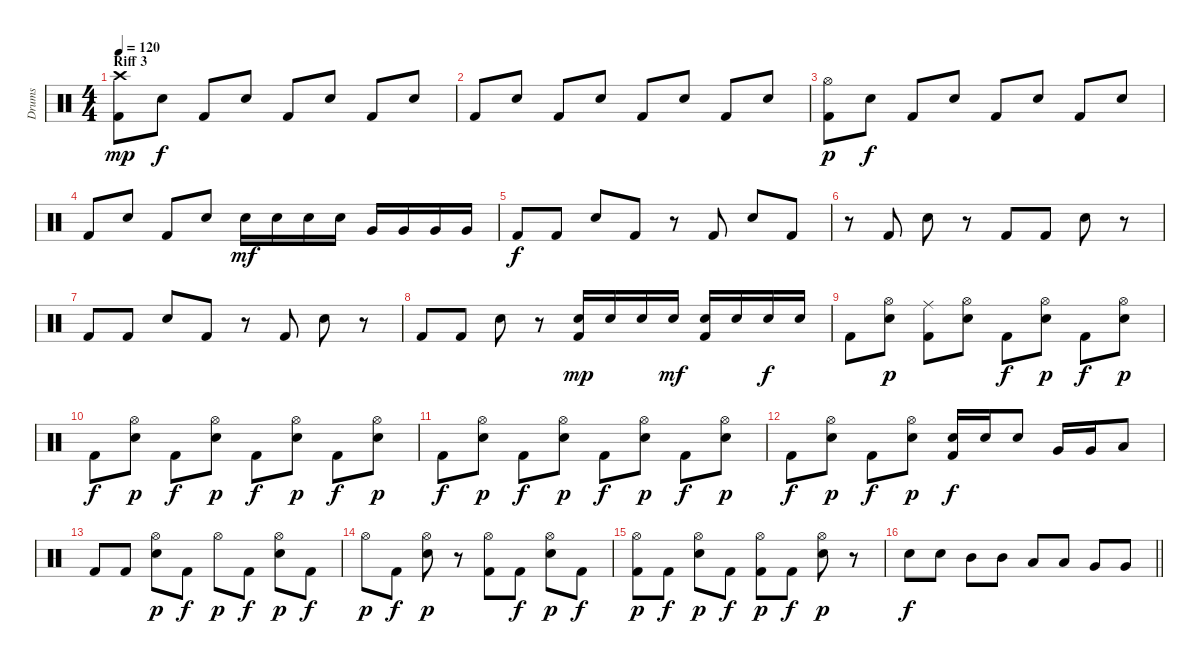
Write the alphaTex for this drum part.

\track ("Drums" "Drums") {instrument percussion}
\staff {score}
\articulation defaults
\ts (4 4)
\section ("" "Riff 3")
\tempo 120
\clef neutral
\ks c
("Kick (hit) 2" "Crash high (hit)").8{dy mp} "Snare (hit) 2".8{dy f} "Kick (hit) 2".8 "Snare (hit) 2".8 "Kick (hit) 2".8 "Snare (hit) 2".8 "Kick (hit) 2".8 "Snare (hit) 2".8 |
"Kick (hit) 2".8 "Snare (hit) 2".8 "Kick (hit) 2".8 "Snare (hit) 2".8 "Kick (hit) 2".8 "Snare (hit) 2".8 "Kick (hit) 2".8 "Snare (hit) 2".8 |
("Kick (hit) 2" "Hi-Hat (open)").8{dy p} "Snare (hit) 2".8{dy f} "Kick (hit) 2".8 "Snare (hit) 2".8 "Kick (hit) 2".8 "Snare (hit) 2".8 "Kick (hit) 2".8 "Snare (hit) 2".8 |
"Kick (hit) 2".8 "Snare (hit) 2".8 "Kick (hit) 2".8 "Snare (hit) 2".8 "Snare (hit) 2".16{dy mf} "Snare (hit) 2".16 "Snare (hit) 2".16 "Snare (hit) 2".16 "Very Low Tom (hit)".16 "Very Low Tom (hit)".16 "Very Low Tom (hit)".16 "Very Low Tom (hit)".16 |
"Kick (hit) 2".8{dy f} "Kick (hit) 2".8 "Snare (hit) 2".8 "Kick (hit) 2".8 r.8 "Kick (hit) 2".8 "Snare (hit) 2".8 "Kick (hit) 2".8 |
r.8 "Kick (hit) 2".8 "Snare (hit) 2".8 r.8 "Kick (hit) 2".8 "Kick (hit) 2".8 "Snare (hit) 2".8 r.8 |
"Kick (hit) 2".8 "Kick (hit) 2".8 "Snare (hit) 2".8 "Kick (hit) 2".8 r.8 "Kick (hit) 2".8 "Snare (hit) 2".8 r.8 |
"Kick (hit) 2".8 "Kick (hit) 2".8 "Snare (hit) 2".8 r.8 ("Kick (hit) 2" "Snare (hit) 2").16{dy mp} "Snare (hit) 2".16 "Snare (hit) 2".16 "Snare (hit) 2".16{dy mf} ("Kick (hit) 2" "Snare (hit) 2").16 "Snare (hit) 2".16 "Snare (hit) 2".16{dy f} "Snare (hit) 2".16 |
"Kick (hit) 2".8 ("Hi-Hat (open)" "Snare (hit) 2").8{dy p} ("Kick (hit) 2" "Ride (middle)").8 ("Hi-Hat (open)" "Snare (hit) 2").8 "Kick (hit) 2".8{dy f} ("Hi-Hat (open)" "Snare (hit) 2").8{dy p} "Kick (hit) 2".8{dy f} ("Hi-Hat (open)" "Snare (hit) 2").8{dy p} |
"Kick (hit) 2".8{dy f} ("Hi-Hat (open)" "Snare (hit) 2").8{dy p} "Kick (hit) 2".8{dy f} ("Hi-Hat (open)" "Snare (hit) 2").8{dy p} "Kick (hit) 2".8{dy f} ("Hi-Hat (open)" "Snare (hit) 2").8{dy p} "Kick (hit) 2".8{dy f} ("Hi-Hat (open)" "Snare (hit) 2").8{dy p} |
"Kick (hit) 2".8{dy f} ("Hi-Hat (open)" "Snare (hit) 2").8{dy p} "Kick (hit) 2".8{dy f} ("Hi-Hat (open)" "Snare (hit) 2").8{dy p} "Kick (hit) 2".8{dy f} ("Hi-Hat (open)" "Snare (hit) 2").8{dy p} "Kick (hit) 2".8{dy f} ("Hi-Hat (open)" "Snare (hit) 2").8{dy p} |
"Kick (hit) 2".8{dy f} ("Hi-Hat (open)" "Snare (hit) 2").8{dy p} "Kick (hit) 2".8{dy f} ("Hi-Hat (open)" "Snare (hit) 2").8{dy p} ("Kick (hit) 2" "Snare (hit) 2").16{dy f} "Snare (hit) 2".16 "Snare (hit) 2".8 "Very Low Tom (hit)".16 "Very Low Tom (hit)".16 "Low Floor Tom (hit)".8 |
"Kick (hit) 2".8 "Kick (hit) 2".8 ("Hi-Hat (open)" "Snare (hit) 2").8{dy p} "Kick (hit) 2".8{dy f} "Hi-Hat (open)".8{dy p} "Kick (hit) 2".8{dy f} ("Hi-Hat (open)" "Snare (hit) 2").8{dy p} "Kick (hit) 2".8{dy f} |
"Hi-Hat (open)".8{dy p} "Kick (hit) 2".8{dy f} ("Hi-Hat (open)" "Snare (hit) 2").8{dy p} r.8 ("Kick (hit) 2" "Hi-Hat (open)").8 "Kick (hit) 2".8{dy f} ("Hi-Hat (open)" "Snare (hit) 2").8{dy p} "Kick (hit) 2".8{dy f} |
("Kick (hit) 2" "Hi-Hat (open)").8{dy p} "Kick (hit) 2".8{dy f} ("Hi-Hat (open)" "Snare (hit) 2").8{dy p} "Kick (hit) 2".8{dy f} ("Kick (hit) 2" "Hi-Hat (open)").8{dy p} "Kick (hit) 2".8{dy f} ("Hi-Hat (open)" "Snare (hit) 2").8{dy p} r.8 |
\barLineRight lightlight "Snare (hit) 2".8{dy f} "Snare (hit) 2".8 "Mid Tom (hit)".8 "Mid Tom (hit)".8 "Low Tom (hit)".8 "Low Tom (hit)".8 "Very Low Tom (hit)".8 "Very Low Tom (hit)".8
